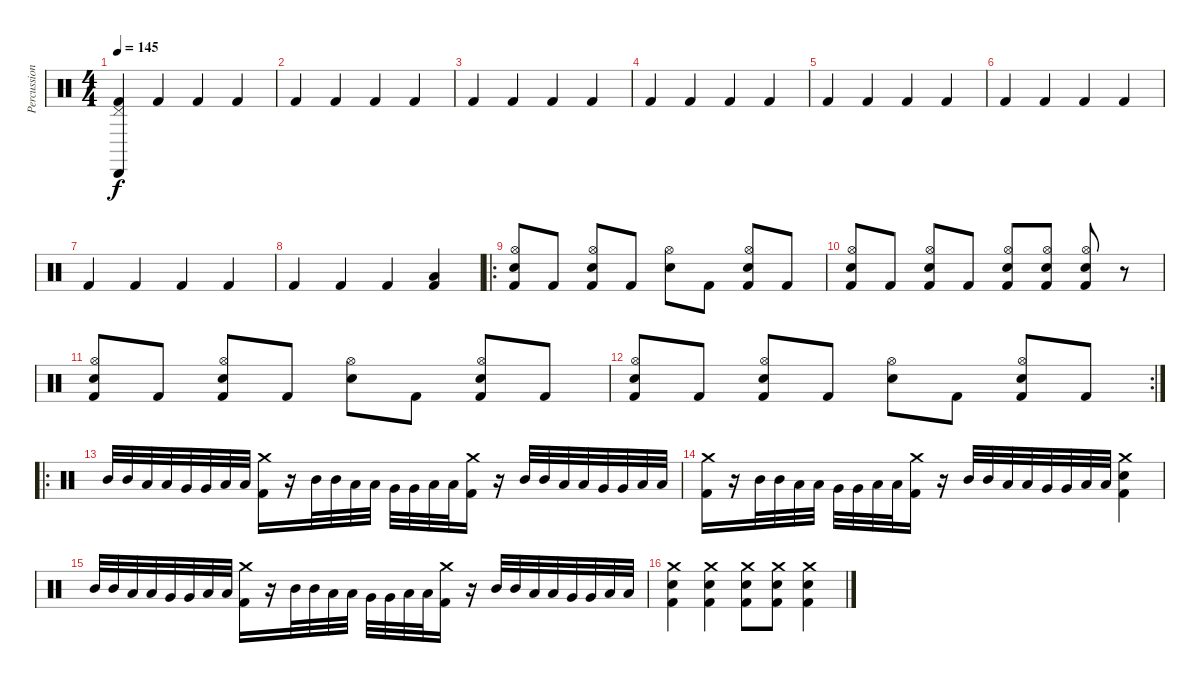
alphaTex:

\track ("Percussion" "Percussion") {instrument percussion}
\staff {score}
\articulation defaults
\ts (4 4)
\tempo 145
\clef neutral
\ks c
("Pedal Hi-Hat (hit)" "Cabasa (hit)" "Kick (hit) 2").4{dy f} "Kick (hit) 2".4 "Kick (hit) 2".4 "Kick (hit) 2".4 |
"Kick (hit) 2".4 "Kick (hit) 2".4 "Kick (hit) 2".4 "Kick (hit) 2".4 |
"Kick (hit) 2".4 "Kick (hit) 2".4 "Kick (hit) 2".4 "Kick (hit) 2".4 |
"Kick (hit) 2".4 "Kick (hit) 2".4 "Kick (hit) 2".4 "Kick (hit) 2".4 |
"Kick (hit) 2".4 "Kick (hit) 2".4 "Kick (hit) 2".4 "Kick (hit) 2".4 |
"Kick (hit) 2".4 "Kick (hit) 2".4 "Kick (hit) 2".4 "Kick (hit) 2".4 |
"Kick (hit) 2".4 "Kick (hit) 2".4 "Kick (hit) 2".4 "Kick (hit) 2".4 |
"Kick (hit) 2".4 "Kick (hit) 2".4 "Kick (hit) 2".4 ("Low Tom (hit)" "Kick (hit) 2").4 |
\ro
("Hi-Hat (open)" "Electric Snare (hit)" "Kick (hit) 2").8 "Kick (hit) 2".8 ("Hi-Hat (open)" "Electric Snare (hit)" "Kick (hit) 2").8 "Kick (hit) 2".8 ("Hi-Hat (open)" "Electric Snare (hit)").8 "Kick (hit) 2".8 ("Hi-Hat (open)" "Electric Snare (hit)" "Kick (hit) 2").8 "Kick (hit) 2".8 |
("Hi-Hat (open)" "Electric Snare (hit)" "Kick (hit) 2").8 "Kick (hit) 2".8 ("Hi-Hat (open)" "Electric Snare (hit)" "Kick (hit) 2").8 "Kick (hit) 2".8 ("Hi-Hat (open)" "Electric Snare (hit)" "Kick (hit) 2").8 ("Hi-Hat (open)" "Electric Snare (hit)" "Kick (hit) 2").8 ("Hi-Hat (open)" "Electric Snare (hit)" "Kick (hit) 2").8 r.8 |
("Hi-Hat (open)" "Electric Snare (hit)" "Kick (hit) 2").8 "Kick (hit) 2".8 ("Hi-Hat (open)" "Electric Snare (hit)" "Kick (hit) 2").8 "Kick (hit) 2".8 ("Hi-Hat (open)" "Electric Snare (hit)").8 "Kick (hit) 2".8 ("Hi-Hat (open)" "Electric Snare (hit)" "Kick (hit) 2").8 "Kick (hit) 2".8 |
\rc 2
("Hi-Hat (open)" "Electric Snare (hit)" "Kick (hit) 2").8 "Kick (hit) 2".8 ("Hi-Hat (open)" "Electric Snare (hit)" "Kick (hit) 2").8 "Kick (hit) 2".8 ("Hi-Hat (open)" "Electric Snare (hit)").8 "Kick (hit) 2".8 ("Hi-Hat (open)" "Electric Snare (hit)" "Kick (hit) 2").8 "Kick (hit) 2".8 |
\ro "Mid Tom (hit)".32 "Mid Tom (hit)".32 "Low Tom (hit)".32 "Low Tom (hit)".32 "Very Low Tom (hit)".32 "Very Low Tom (hit)".32 "Low Floor Tom (hit)".32 "Low Floor Tom (hit)".32
("Crash medium (hit)" "Kick (hit) 2").16 r.16 "Mid Tom (hit)".32 "Mid Tom (hit)".32 "Low Tom (hit)".32 "Low Tom (hit)".32 "Very Low Tom (hit)".32 "Very Low Tom (hit)".32 "Low Floor Tom (hit)".32 "Low Floor Tom (hit)".32 ("Crash medium (hit)" "Kick (hit) 2").16 r.16 "Mid Tom (hit)".32 "Mid Tom (hit)".32 "Low Tom (hit)".32 "Low Tom (hit)".32 "Very Low Tom (hit)".32 "Very Low Tom (hit)".32 "Low Floor Tom (hit)".32 "Low Floor Tom (hit)".32 |
("Crash medium (hit)" "Kick (hit) 2").16 r.16 "Mid Tom (hit)".32 "Mid Tom (hit)".32 "Low Tom (hit)".32 "Low Tom (hit)".32 "Very Low Tom (hit)".32 "Very Low Tom (hit)".32 "Low Floor Tom (hit)".32 "Low Floor Tom (hit)".32 ("Crash medium (hit)" "Kick (hit) 2").16 r.16 "Mid Tom (hit)".32 "Mid Tom (hit)".32 "Low Tom (hit)".32 "Low Tom (hit)".32 "Very Low Tom (hit)".32 "Very Low Tom (hit)".32 "Low Floor Tom (hit)".32 "Low Floor Tom (hit)".32 ("Crash medium (hit)" "Electric Snare (hit)" "Kick (hit) 2").4 |
"Mid Tom (hit)".32 "Mid Tom (hit)".32 "Low Tom (hit)".32 "Low Tom (hit)".32 "Very Low Tom (hit)".32 "Very Low Tom (hit)".32 "Low Floor Tom (hit)".32 "Low Floor Tom (hit)".32 ("Crash medium (hit)" "Kick (hit) 2").16 r.16 "Mid Tom (hit)".32 "Mid Tom (hit)".32 "Low Tom (hit)".32 "Low Tom (hit)".32 "Very Low Tom (hit)".32 "Very Low Tom (hit)".32 "Low Floor Tom (hit)".32 "Low Floor Tom (hit)".32 ("Crash medium (hit)" "Kick (hit) 2").16 r.16 "Mid Tom (hit)".32 "Mid Tom (hit)".32 "Low Tom (hit)".32 "Low Tom (hit)".32 "Very Low Tom (hit)".32 "Very Low Tom (hit)".32 "Low Floor Tom (hit)".32 "Low Floor Tom (hit)".32 |
("Crash medium (hit)" "Electric Snare (hit)" "Kick (hit) 2").4 ("Crash medium (hit)" "Electric Snare (hit)" "Kick (hit) 2").4 ("Crash medium (hit)" "Electric Snare (hit)" "Kick (hit) 2").8 ("Crash medium (hit)" "Electric Snare (hit)" "Kick (hit) 2").8 ("Crash medium (hit)" "Electric Snare (hit)" "Kick (hit) 2").4
